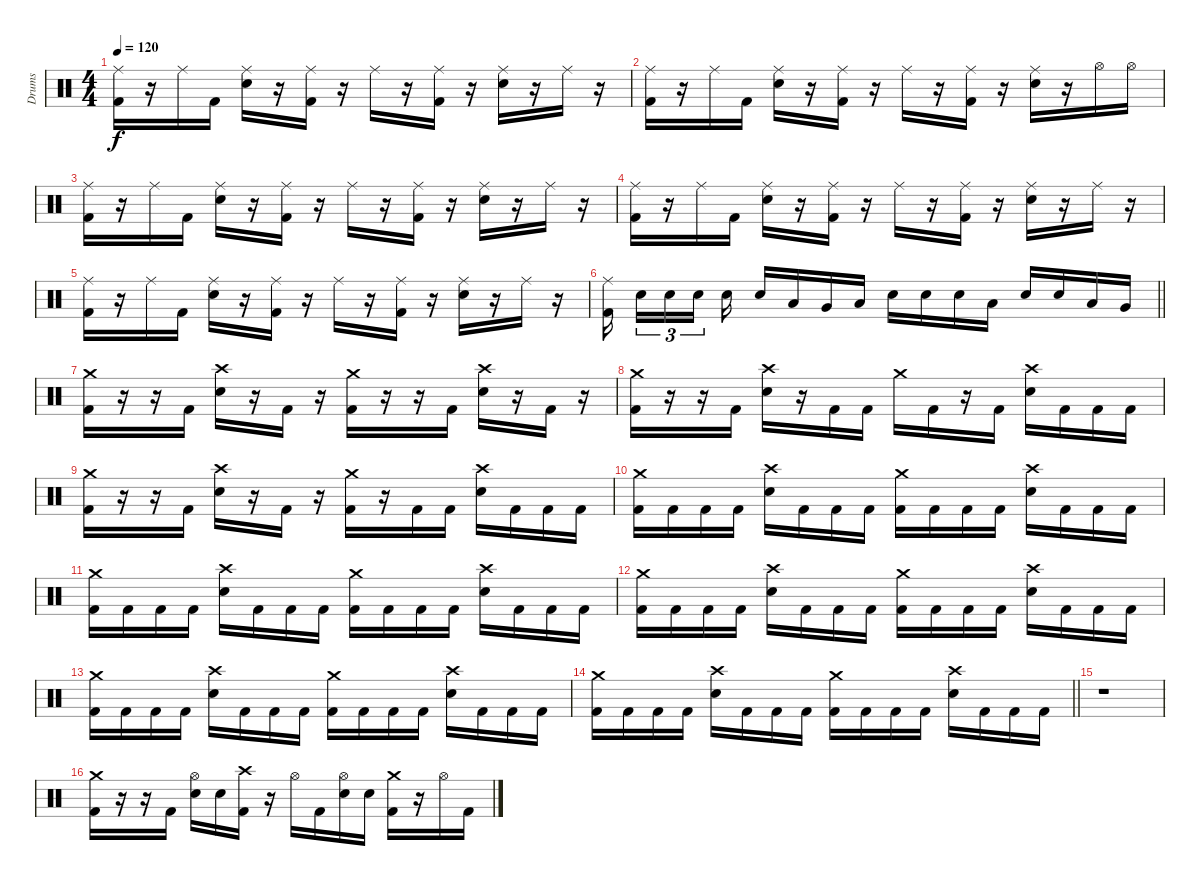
\track ("Drums" "Drums") {instrument percussion}
\staff {score}
\articulation defaults
\ts (4 4)
\tempo 120
\clef neutral
\ks c
("Ride (middle)" "Kick (hit) 2").16{dy f} r.16 "Ride (middle)".16 "Kick (hit) 2".16 ("Ride (middle)" "Electric Snare (hit)").16 r.16 ("Ride (middle)" "Kick (hit) 2").16 r.16 "Ride (middle)".16 r.16 ("Ride (middle)" "Kick (hit) 2").16 r.16 ("Ride (middle)" "Electric Snare (hit)").16 r.16 "Ride (middle)".16 r.16 |
("Ride (middle)" "Kick (hit) 2").16 r.16 "Ride (middle)".16 "Kick (hit) 2".16 ("Ride (middle)" "Electric Snare (hit)").16 r.16 ("Ride (middle)" "Kick (hit) 2").16 r.16 "Ride (middle)".16 r.16 ("Ride (middle)" "Kick (hit) 2").16 r.16 ("Ride (middle)" "Electric Snare (hit)").16 r.16 "Hi-Hat (open)".16 "Hi-Hat (open)".16 |
("Ride (middle)" "Kick (hit) 2").16 r.16 "Ride (middle)".16 "Kick (hit) 2".16 ("Ride (middle)" "Electric Snare (hit)").16 r.16 ("Ride (middle)" "Kick (hit) 2").16 r.16 "Ride (middle)".16 r.16 ("Ride (middle)" "Kick (hit) 2").16 r.16 ("Ride (middle)" "Electric Snare (hit)").16 r.16 "Ride (middle)".16 r.16 |
("Ride (middle)" "Kick (hit) 2").16 r.16 "Ride (middle)".16 "Kick (hit) 2".16 ("Ride (middle)" "Electric Snare (hit)").16 r.16 ("Ride (middle)" "Kick (hit) 2").16 r.16 "Ride (middle)".16 r.16 ("Ride (middle)" "Kick (hit) 2").16 r.16 ("Ride (middle)" "Electric Snare (hit)").16 r.16 "Ride (middle)".16 r.16 |
("Ride (middle)" "Kick (hit) 2").16 r.16 "Ride (middle)".16 "Kick (hit) 2".16 ("Ride (middle)" "Electric Snare (hit)").16 r.16 ("Ride (middle)" "Kick (hit) 2").16 r.16 "Ride (middle)".16 r.16 ("Ride (middle)" "Kick (hit) 2").16 r.16 ("Ride (middle)" "Electric Snare (hit)").16 r.16 "Ride (middle)".16 r.16 |
\barLineRight lightlight
("Ride (middle)" "Kick (hit) 2").16 "Electric Snare (hit)".16{tu (3 2)} "Electric Snare (hit)".16{tu (3 2)} "Electric Snare (hit)".16{tu (3 2)} "Electric Snare (hit)".16 "Electric Snare (hit)".16 "Low Tom (hit)".16 "Very Low Tom (hit)".16 "Low Floor Tom (hit)".16 "Electric Snare (hit)".16 "Electric Snare (hit)".16 "Electric Snare (hit)".16 "Low Floor Tom (hit)".16 "Electric Snare (hit)".16 "Electric Snare (hit)".16 "Low Tom (hit)".16 "Very Low Tom (hit)".16 |
\section ("" "")
("Crash medium (hit)" "Kick (hit) 2").16 r.16 r.16 "Kick (hit) 2".16 ("Crash high (hit)" "Electric Snare (hit)").16 r.16 "Kick (hit) 2".16 r.16 ("Crash medium (hit)" "Kick (hit) 2").16 r.16 r.16 "Kick (hit) 2".16 ("Crash high (hit)" "Electric Snare (hit)").16 r.16 "Kick (hit) 2".16 r.16 |
("Crash medium (hit)" "Kick (hit) 2").16 r.16 r.16 "Kick (hit) 2".16 ("Crash high (hit)" "Electric Snare (hit)").16 r.16 "Kick (hit) 2".16 "Kick (hit) 2".16 "Crash medium (hit)".16 "Kick (hit) 2".16 r.16 "Kick (hit) 2".16 ("Crash high (hit)" "Electric Snare (hit)").16 "Kick (hit) 2".16 "Kick (hit) 2".16 "Kick (hit) 2".16 |
("Crash medium (hit)" "Kick (hit) 2").16 r.16 r.16 "Kick (hit) 2".16 ("Crash high (hit)" "Electric Snare (hit)").16 r.16 "Kick (hit) 2".16 r.16 ("Crash medium (hit)" "Kick (hit) 2").16 r.16 "Kick (hit) 2".16 "Kick (hit) 2".16 ("Crash high (hit)" "Electric Snare (hit)").16 "Kick (hit) 2".16 "Kick (hit) 2".16 "Kick (hit) 2".16 |
("Crash medium (hit)" "Kick (hit) 2").16 "Kick (hit) 2".16 "Kick (hit) 2".16 "Kick (hit) 2".16 ("Crash high (hit)" "Electric Snare (hit)").16 "Kick (hit) 2".16 "Kick (hit) 2".16 "Kick (hit) 2".16 ("Crash medium (hit)" "Kick (hit) 2").16 "Kick (hit) 2".16 "Kick (hit) 2".16 "Kick (hit) 2".16 ("Crash high (hit)" "Electric Snare (hit)").16 "Kick (hit) 2".16 "Kick (hit) 2".16 "Kick (hit) 2".16 |
("Crash medium (hit)" "Kick (hit) 2").16 "Kick (hit) 2".16 "Kick (hit) 2".16 "Kick (hit) 2".16 ("Crash high (hit)" "Electric Snare (hit)").16 "Kick (hit) 2".16 "Kick (hit) 2".16 "Kick (hit) 2".16 ("Crash medium (hit)" "Kick (hit) 2").16 "Kick (hit) 2".16 "Kick (hit) 2".16 "Kick (hit) 2".16 ("Crash high (hit)" "Electric Snare (hit)").16 "Kick (hit) 2".16 "Kick (hit) 2".16 "Kick (hit) 2".16 |
("Crash medium (hit)" "Kick (hit) 2").16 "Kick (hit) 2".16 "Kick (hit) 2".16 "Kick (hit) 2".16 ("Crash high (hit)" "Electric Snare (hit)").16 "Kick (hit) 2".16 "Kick (hit) 2".16 "Kick (hit) 2".16 ("Crash medium (hit)" "Kick (hit) 2").16 "Kick (hit) 2".16 "Kick (hit) 2".16 "Kick (hit) 2".16 ("Crash high (hit)" "Electric Snare (hit)").16 "Kick (hit) 2".16 "Kick (hit) 2".16 "Kick (hit) 2".16 |
("Crash medium (hit)" "Kick (hit) 2").16 "Kick (hit) 2".16 "Kick (hit) 2".16 "Kick (hit) 2".16 ("Crash high (hit)" "Electric Snare (hit)").16 "Kick (hit) 2".16 "Kick (hit) 2".16 "Kick (hit) 2".16 ("Crash medium (hit)" "Kick (hit) 2").16 "Kick (hit) 2".16 "Kick (hit) 2".16 "Kick (hit) 2".16 ("Crash high (hit)" "Electric Snare (hit)").16 "Kick (hit) 2".16 "Kick (hit) 2".16 "Kick (hit) 2".16 |
\barLineRight lightlight
("Crash medium (hit)" "Kick (hit) 2").16 "Kick (hit) 2".16 "Kick (hit) 2".16 "Kick (hit) 2".16 ("Crash high (hit)" "Electric Snare (hit)").16 "Kick (hit) 2".16 "Kick (hit) 2".16 "Kick (hit) 2".16 ("Crash medium (hit)" "Kick (hit) 2").16 "Kick (hit) 2".16 "Kick (hit) 2".16 "Kick (hit) 2".16 ("Crash high (hit)" "Electric Snare (hit)").16 "Kick (hit) 2".16 "Kick (hit) 2".16 "Kick (hit) 2".16 |
\section ("" "")
r.1 |
("Crash medium (hit)" "Kick (hit) 2").16 r.16 r.16 "Kick (hit) 2".16 ("Hi-Hat (open)" "Electric Snare (hit)").16 "Electric Snare (hit)".16 ("Crash high (hit)" "Kick (hit) 2").16 r.16 "Hi-Hat (open)".16 "Kick (hit) 2".16 ("Hi-Hat (open)" "Electric Snare (hit)").16 "Electric Snare (hit)".16 ("Crash medium (hit)" "Kick (hit) 2").16 r.16 "Hi-Hat (open)".16 "Kick (hit) 2".16
